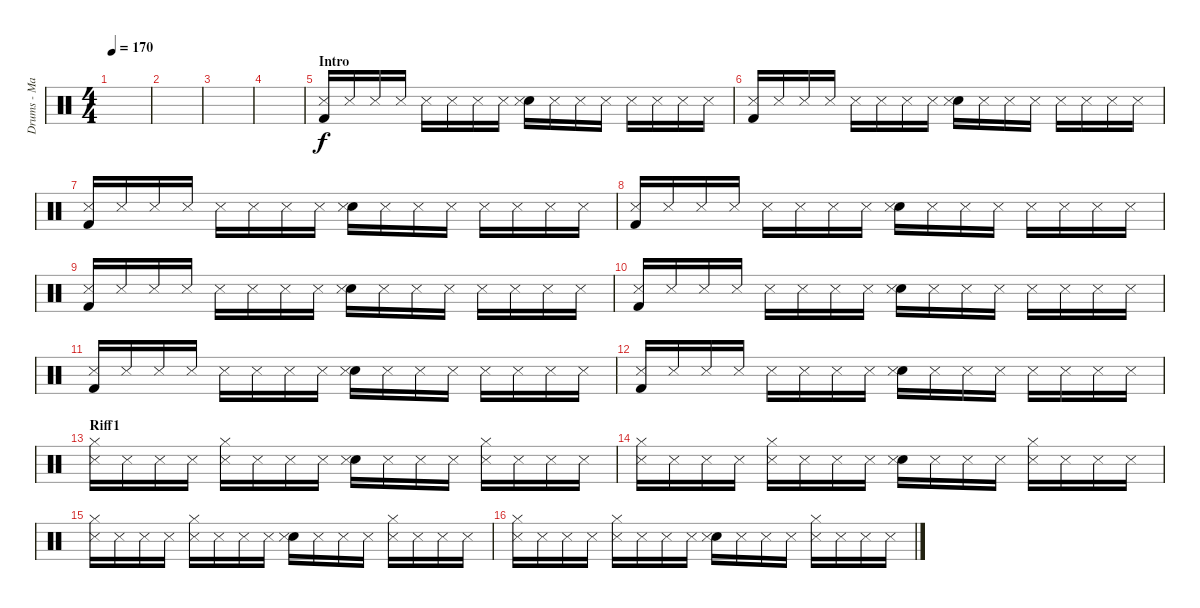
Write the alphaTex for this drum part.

\track ("Drums - Mattias Grahn" "Drums - Ma") {instrument percussion}
\staff {score}
\articulation defaults
\ts (4 4)
\tempo 170
\clef neutral
\ks c
|
|
|
|
\section ("" "Intro")
("Kick (hit) 2" "Snare (side stick) 3").16 "Snare (side stick) 3".16 "Snare (side stick) 3".16 "Snare (side stick) 3".16 "Snare (side stick) 3".16 "Snare (side stick) 3".16 "Snare (side stick) 3".16 "Snare (side stick) 3".16 ("Electric Snare (hit)" "Snare (side stick) 3").16 "Snare (side stick) 3".16 "Snare (side stick) 3".16 "Snare (side stick) 3".16 "Snare (side stick) 3".16 "Snare (side stick) 3".16 "Snare (side stick) 3".16 "Snare (side stick) 3".16 |
("Kick (hit) 2" "Snare (side stick) 3").16 "Snare (side stick) 3".16 "Snare (side stick) 3".16 "Snare (side stick) 3".16 "Snare (side stick) 3".16 "Snare (side stick) 3".16 "Snare (side stick) 3".16 "Snare (side stick) 3".16 ("Electric Snare (hit)" "Snare (side stick) 3").16 "Snare (side stick) 3".16 "Snare (side stick) 3".16 "Snare (side stick) 3".16 "Snare (side stick) 3".16 "Snare (side stick) 3".16 "Snare (side stick) 3".16 "Snare (side stick) 3".16 |
("Kick (hit) 2" "Snare (side stick) 3").16 "Snare (side stick) 3".16 "Snare (side stick) 3".16 "Snare (side stick) 3".16 "Snare (side stick) 3".16 "Snare (side stick) 3".16 "Snare (side stick) 3".16 "Snare (side stick) 3".16 ("Electric Snare (hit)" "Snare (side stick) 3").16 "Snare (side stick) 3".16 "Snare (side stick) 3".16 "Snare (side stick) 3".16 "Snare (side stick) 3".16 "Snare (side stick) 3".16 "Snare (side stick) 3".16 "Snare (side stick) 3".16 |
("Kick (hit) 2" "Snare (side stick) 3").16 "Snare (side stick) 3".16 "Snare (side stick) 3".16 "Snare (side stick) 3".16 "Snare (side stick) 3".16 "Snare (side stick) 3".16 "Snare (side stick) 3".16 "Snare (side stick) 3".16 ("Electric Snare (hit)" "Snare (side stick) 3").16 "Snare (side stick) 3".16 "Snare (side stick) 3".16 "Snare (side stick) 3".16 "Snare (side stick) 3".16 "Snare (side stick) 3".16 "Snare (side stick) 3".16 "Snare (side stick) 3".16 |
("Kick (hit) 2" "Snare (side stick) 3").16 "Snare (side stick) 3".16 "Snare (side stick) 3".16 "Snare (side stick) 3".16 "Snare (side stick) 3".16 "Snare (side stick) 3".16 "Snare (side stick) 3".16 "Snare (side stick) 3".16 ("Electric Snare (hit)" "Snare (side stick) 3").16 "Snare (side stick) 3".16 "Snare (side stick) 3".16 "Snare (side stick) 3".16 "Snare (side stick) 3".16 "Snare (side stick) 3".16 "Snare (side stick) 3".16 "Snare (side stick) 3".16 |
("Kick (hit) 2" "Snare (side stick) 3").16 "Snare (side stick) 3".16 "Snare (side stick) 3".16 "Snare (side stick) 3".16 "Snare (side stick) 3".16 "Snare (side stick) 3".16 "Snare (side stick) 3".16 "Snare (side stick) 3".16 ("Electric Snare (hit)" "Snare (side stick) 3").16 "Snare (side stick) 3".16 "Snare (side stick) 3".16 "Snare (side stick) 3".16 "Snare (side stick) 3".16 "Snare (side stick) 3".16 "Snare (side stick) 3".16 "Snare (side stick) 3".16 |
("Kick (hit) 2" "Snare (side stick) 3").16 "Snare (side stick) 3".16 "Snare (side stick) 3".16 "Snare (side stick) 3".16 "Snare (side stick) 3".16 "Snare (side stick) 3".16 "Snare (side stick) 3".16 "Snare (side stick) 3".16 ("Electric Snare (hit)" "Snare (side stick) 3").16 "Snare (side stick) 3".16 "Snare (side stick) 3".16 "Snare (side stick) 3".16 "Snare (side stick) 3".16 "Snare (side stick) 3".16 "Snare (side stick) 3".16 "Snare (side stick) 3".16 |
("Kick (hit) 2" "Snare (side stick) 3").16 "Snare (side stick) 3".16 "Snare (side stick) 3".16 "Snare (side stick) 3".16 "Snare (side stick) 3".16 "Snare (side stick) 3".16 "Snare (side stick) 3".16 "Snare (side stick) 3".16 ("Electric Snare (hit)" "Snare (side stick) 3").16 "Snare (side stick) 3".16 "Snare (side stick) 3".16 "Snare (side stick) 3".16 "Snare (side stick) 3".16 "Snare (side stick) 3".16 "Snare (side stick) 3".16 "Snare (side stick) 3".16 |
\section ("" "Riff1")
("Hi-Hat (closed)" "Snare (side stick) 3").16 "Snare (side stick) 3".16 "Snare (side stick) 3".16 "Snare (side stick) 3".16 ("Hi-Hat (closed)" "Snare (side stick) 3").16 "Snare (side stick) 3".16 "Snare (side stick) 3".16 "Snare (side stick) 3".16 ("Electric Snare (hit)" "Snare (side stick) 3").16 "Snare (side stick) 3".16 "Snare (side stick) 3".16 "Snare (side stick) 3".16 ("Hi-Hat (closed)" "Snare (side stick) 3").16 "Snare (side stick) 3".16 "Snare (side stick) 3".16 "Snare (side stick) 3".16 |
("Hi-Hat (closed)" "Snare (side stick) 3").16 "Snare (side stick) 3".16 "Snare (side stick) 3".16 "Snare (side stick) 3".16 ("Hi-Hat (closed)" "Snare (side stick) 3").16 "Snare (side stick) 3".16 "Snare (side stick) 3".16 "Snare (side stick) 3".16 ("Electric Snare (hit)" "Snare (side stick) 3").16 "Snare (side stick) 3".16 "Snare (side stick) 3".16 "Snare (side stick) 3".16 ("Hi-Hat (closed)" "Snare (side stick) 3").16 "Snare (side stick) 3".16 "Snare (side stick) 3".16 "Snare (side stick) 3".16 |
("Hi-Hat (closed)" "Snare (side stick) 3").16 "Snare (side stick) 3".16 "Snare (side stick) 3".16 "Snare (side stick) 3".16 ("Hi-Hat (closed)" "Snare (side stick) 3").16 "Snare (side stick) 3".16 "Snare (side stick) 3".16 "Snare (side stick) 3".16 ("Electric Snare (hit)" "Snare (side stick) 3").16 "Snare (side stick) 3".16 "Snare (side stick) 3".16 "Snare (side stick) 3".16 ("Hi-Hat (closed)" "Snare (side stick) 3").16 "Snare (side stick) 3".16 "Snare (side stick) 3".16 "Snare (side stick) 3".16 |
("Hi-Hat (closed)" "Snare (side stick) 3").16 "Snare (side stick) 3".16 "Snare (side stick) 3".16 "Snare (side stick) 3".16 ("Hi-Hat (closed)" "Snare (side stick) 3").16 "Snare (side stick) 3".16 "Snare (side stick) 3".16 "Snare (side stick) 3".16 ("Electric Snare (hit)" "Snare (side stick) 3").16 "Snare (side stick) 3".16 "Snare (side stick) 3".16 "Snare (side stick) 3".16 ("Hi-Hat (closed)" "Snare (side stick) 3").16 "Snare (side stick) 3".16 "Snare (side stick) 3".16 "Snare (side stick) 3".16
